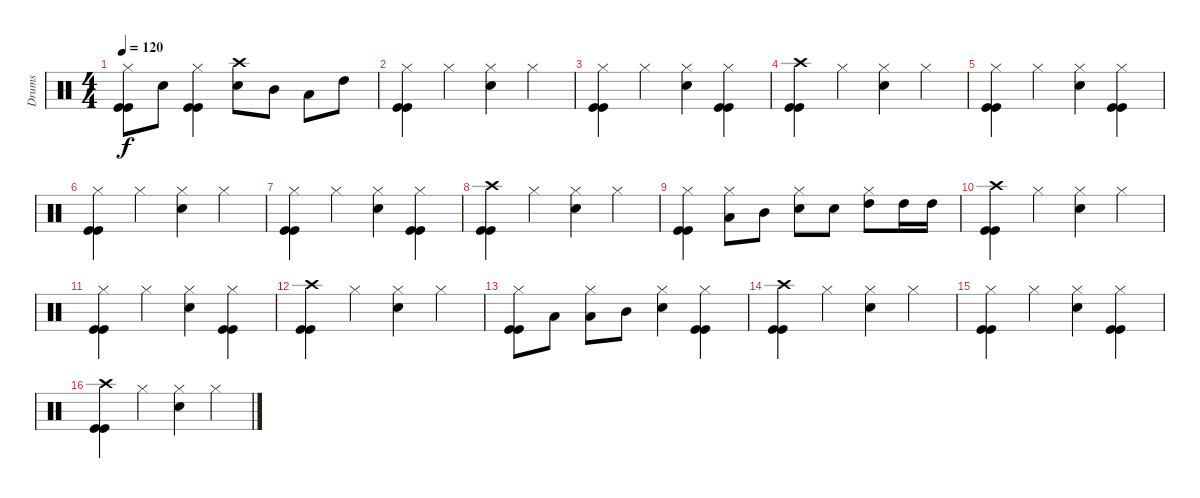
\track ("Drums" "Drums") {instrument percussion}
\staff {score}
\articulation defaults
\ts (4 4)
\tempo 120
\clef neutral
\ks c
("Hi-Hat (closed)" "Kick (hit)" "Kick (hit)").8{dy f} "Snare (hit) 2".8 ("Hi-Hat (closed)" "Kick (hit)" "Kick (hit)").4 ("Crash high (hit)" "Snare (hit) 2").8 "Mid Tom (hit)".8 "Low Tom (hit)".8 "High Tom (hit)".8 |
("Hi-Hat (closed)" "Kick (hit)" "Kick (hit)").4 "Hi-Hat (closed)".4 ("Hi-Hat (closed)" "Snare (hit) 2").4 "Hi-Hat (closed)".4 |
("Hi-Hat (closed)" "Kick (hit)" "Kick (hit)").4 "Hi-Hat (closed)".4 ("Hi-Hat (closed)" "Snare (hit) 2").4 ("Hi-Hat (closed)" "Kick (hit)" "Kick (hit)").4 |
("Crash high (hit)" "Kick (hit)" "Kick (hit)").4 "Hi-Hat (closed)".4 ("Hi-Hat (closed)" "Snare (hit) 2").4 "Hi-Hat (closed)".4 |
("Hi-Hat (closed)" "Kick (hit)" "Kick (hit)").4 "Hi-Hat (closed)".4 ("Hi-Hat (closed)" "Snare (hit) 2").4 ("Hi-Hat (closed)" "Kick (hit)" "Kick (hit)").4 |
("Hi-Hat (closed)" "Kick (hit)" "Kick (hit)").4 "Hi-Hat (closed)".4 ("Hi-Hat (closed)" "Snare (hit) 2").4 "Hi-Hat (closed)".4 |
("Hi-Hat (closed)" "Kick (hit)" "Kick (hit)").4 "Hi-Hat (closed)".4 ("Hi-Hat (closed)" "Snare (hit) 2").4 ("Hi-Hat (closed)" "Kick (hit)" "Kick (hit)").4 |
("Crash high (hit)" "Kick (hit)" "Kick (hit)").4 "Hi-Hat (closed)".4 ("Hi-Hat (closed)" "Snare (hit) 2").4 "Hi-Hat (closed)".4 |
("Hi-Hat (closed)" "Kick (hit)" "Kick (hit)").4 ("Hi-Hat (closed)" "Low Tom (hit)").8 "Mid Tom (hit)".8 ("Hi-Hat (closed)" "Snare (hit) 2").8 "Snare (hit) 2".8 ("Hi-Hat (closed)" "High Tom (hit)").8 "High Tom (hit)".16 "High Tom (hit)".16 |
("Crash high (hit)" "Kick (hit)" "Kick (hit)").4 "Hi-Hat (closed)".4 ("Hi-Hat (closed)" "Snare (hit) 2").4 "Hi-Hat (closed)".4 |
("Hi-Hat (closed)" "Kick (hit)" "Kick (hit)").4 "Hi-Hat (closed)".4 ("Hi-Hat (closed)" "Snare (hit) 2").4 ("Hi-Hat (closed)" "Kick (hit)" "Kick (hit)").4 |
("Crash high (hit)" "Kick (hit)" "Kick (hit)").4 "Hi-Hat (closed)".4 ("Hi-Hat (closed)" "Snare (hit) 2").4 "Hi-Hat (closed)".4 |
("Hi-Hat (closed)" "Kick (hit)" "Kick (hit)").8 "Low Tom (hit)".8 ("Hi-Hat (closed)" "Low Tom (hit)").8 "Mid Tom (hit)".8 ("Hi-Hat (closed)" "Snare (hit) 2").4 ("Hi-Hat (closed)" "Kick (hit)" "Kick (hit)").4 |
("Crash high (hit)" "Kick (hit)" "Kick (hit)").4 "Hi-Hat (closed)".4 ("Hi-Hat (closed)" "Snare (hit) 2").4 "Hi-Hat (closed)".4 |
("Hi-Hat (closed)" "Kick (hit)" "Kick (hit)").4 "Hi-Hat (closed)".4 ("Hi-Hat (closed)" "Snare (hit) 2").4 ("Hi-Hat (closed)" "Kick (hit)" "Kick (hit)").4 |
("Crash high (hit)" "Kick (hit)" "Kick (hit)").4 "Hi-Hat (closed)".4 ("Hi-Hat (closed)" "Snare (hit) 2").4 "Hi-Hat (closed)".4
